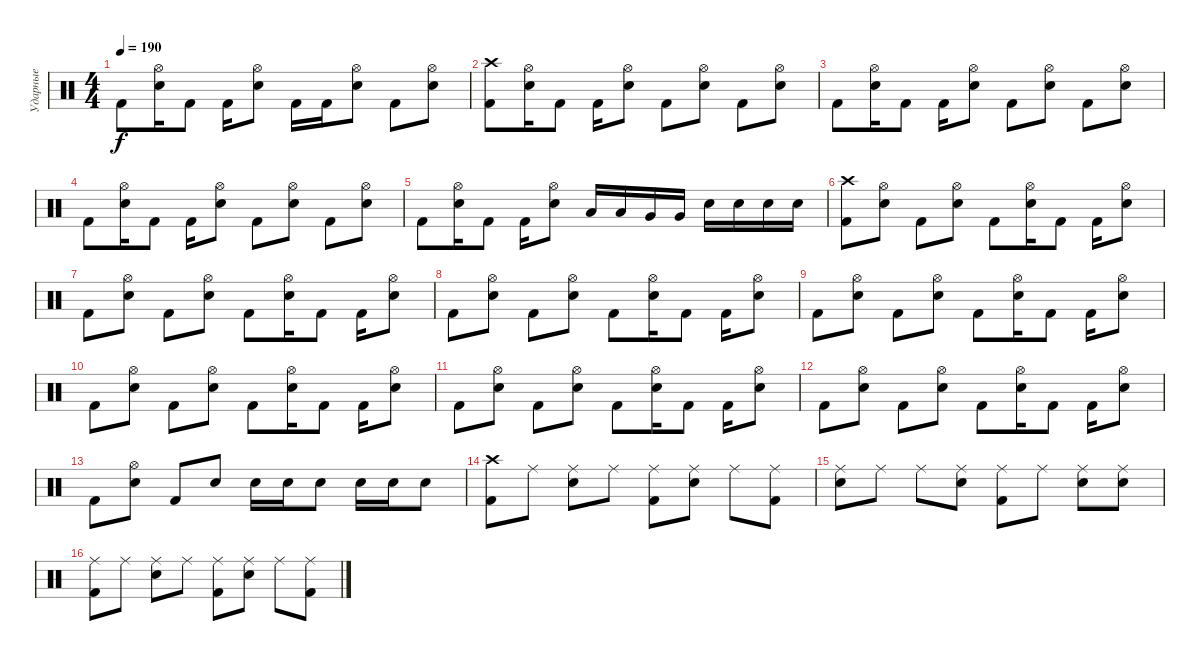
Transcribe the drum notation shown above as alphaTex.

\track ("Ударные" "Ударные") {instrument percussion}
\staff {score}
\articulation defaults
\ts (4 4)
\tempo 190
\clef neutral
\ks c "Kick (hit) 2".8{dy f}
("Hi-Hat (open)" "Electric Snare (hit)").16 "Kick (hit) 2".8 "Kick (hit) 2".16 ("Hi-Hat (open)" "Electric Snare (hit)").8 "Kick (hit) 2".16 "Kick (hit) 2".16 ("Hi-Hat (open)" "Electric Snare (hit)").8 "Kick (hit) 2".8 ("Hi-Hat (open)" "Electric Snare (hit)").8 |
("Crash high (hit)" "Kick (hit) 2").8 ("Hi-Hat (open)" "Electric Snare (hit)").16 "Kick (hit) 2".8 "Kick (hit) 2".16 ("Hi-Hat (open)" "Electric Snare (hit)").8 "Kick (hit) 2".8 ("Hi-Hat (open)" "Electric Snare (hit)").8 "Kick (hit) 2".8 ("Hi-Hat (open)" "Electric Snare (hit)").8 |
"Kick (hit) 2".8 ("Hi-Hat (open)" "Electric Snare (hit)").16 "Kick (hit) 2".8 "Kick (hit) 2".16 ("Hi-Hat (open)" "Electric Snare (hit)").8 "Kick (hit) 2".8 ("Hi-Hat (open)" "Electric Snare (hit)").8 "Kick (hit) 2".8 ("Hi-Hat (open)" "Electric Snare (hit)").8 |
"Kick (hit) 2".8 ("Hi-Hat (open)" "Electric Snare (hit)").16 "Kick (hit) 2".8 "Kick (hit) 2".16 ("Hi-Hat (open)" "Electric Snare (hit)").8 "Kick (hit) 2".8 ("Hi-Hat (open)" "Electric Snare (hit)").8 "Kick (hit) 2".8 ("Hi-Hat (open)" "Electric Snare (hit)").8 |
"Kick (hit) 2".8 ("Hi-Hat (open)" "Electric Snare (hit)").16 "Kick (hit) 2".8 "Kick (hit) 2".16 ("Hi-Hat (open)" "Electric Snare (hit)").8 "Low Tom (hit)".16 "Low Tom (hit)".16 "Very Low Tom (hit)".16 "Very Low Tom (hit)".16 "Electric Snare (hit)".16 "Electric Snare (hit)".16 "Electric Snare (hit)".16 "Electric Snare (hit)".16 |
("Crash high (hit)" "Kick (hit) 2").8 ("Hi-Hat (open)" "Electric Snare (hit)").8 "Kick (hit) 2".8 ("Hi-Hat (open)" "Electric Snare (hit)").8 "Kick (hit) 2".8 ("Hi-Hat (open)" "Electric Snare (hit)").16 "Kick (hit) 2".8 "Kick (hit) 2".16 ("Hi-Hat (open)" "Electric Snare (hit)").8 |
"Kick (hit) 2".8 ("Hi-Hat (open)" "Electric Snare (hit)").8 "Kick (hit) 2".8 ("Hi-Hat (open)" "Electric Snare (hit)").8 "Kick (hit) 2".8 ("Hi-Hat (open)" "Electric Snare (hit)").16 "Kick (hit) 2".8 "Kick (hit) 2".16 ("Hi-Hat (open)" "Electric Snare (hit)").8 |
"Kick (hit) 2".8 ("Hi-Hat (open)" "Electric Snare (hit)").8 "Kick (hit) 2".8 ("Hi-Hat (open)" "Electric Snare (hit)").8 "Kick (hit) 2".8 ("Hi-Hat (open)" "Electric Snare (hit)").16 "Kick (hit) 2".8 "Kick (hit) 2".16 ("Hi-Hat (open)" "Electric Snare (hit)").8 |
"Kick (hit) 2".8 ("Hi-Hat (open)" "Electric Snare (hit)").8 "Kick (hit) 2".8 ("Hi-Hat (open)" "Electric Snare (hit)").8 "Kick (hit) 2".8 ("Hi-Hat (open)" "Electric Snare (hit)").16 "Kick (hit) 2".8 "Kick (hit) 2".16 ("Hi-Hat (open)" "Electric Snare (hit)").8 |
"Kick (hit) 2".8 ("Hi-Hat (open)" "Electric Snare (hit)").8 "Kick (hit) 2".8 ("Hi-Hat (open)" "Electric Snare (hit)").8 "Kick (hit) 2".8 ("Hi-Hat (open)" "Electric Snare (hit)").16 "Kick (hit) 2".8 "Kick (hit) 2".16 ("Hi-Hat (open)" "Electric Snare (hit)").8 |
"Kick (hit) 2".8 ("Hi-Hat (open)" "Electric Snare (hit)").8 "Kick (hit) 2".8 ("Hi-Hat (open)" "Electric Snare (hit)").8 "Kick (hit) 2".8 ("Hi-Hat (open)" "Electric Snare (hit)").16 "Kick (hit) 2".8 "Kick (hit) 2".16 ("Hi-Hat (open)" "Electric Snare (hit)").8 |
"Kick (hit) 2".8 ("Hi-Hat (open)" "Electric Snare (hit)").8 "Kick (hit) 2".8 ("Hi-Hat (open)" "Electric Snare (hit)").8 "Kick (hit) 2".8 ("Hi-Hat (open)" "Electric Snare (hit)").16 "Kick (hit) 2".8 "Kick (hit) 2".16 ("Hi-Hat (open)" "Electric Snare (hit)").8 |
"Kick (hit) 2".8 ("Hi-Hat (open)" "Electric Snare (hit)").8 "Kick (hit) 2".8 "Electric Snare (hit)".8 "Electric Snare (hit)".16 "Electric Snare (hit)".16 "Electric Snare (hit)".8 "Electric Snare (hit)".16 "Electric Snare (hit)".16 "Electric Snare (hit)".8 |
("Crash high (hit)" "Kick (hit) 2").8 "Ride (middle)".8 ("Ride (middle)" "Electric Snare (hit)").8 "Ride (middle)".8 ("Ride (middle)" "Kick (hit) 2").8 ("Ride (middle)" "Electric Snare (hit)").8 "Ride (middle)".8 ("Ride (middle)" "Kick (hit) 2").8 |
("Ride (middle)" "Electric Snare (hit)").8 "Ride (middle)".8 "Ride (middle)".8 ("Ride (middle)" "Electric Snare (hit)").8 ("Ride (middle)" "Kick (hit) 2").8 "Ride (middle)".8 ("Ride (middle)" "Electric Snare (hit)").8 ("Ride (middle)" "Electric Snare (hit)").8 |
("Ride (middle)" "Kick (hit) 2").8 "Ride (middle)".8 ("Ride (middle)" "Electric Snare (hit)").8 "Ride (middle)".8 ("Ride (middle)" "Kick (hit) 2").8 ("Ride (middle)" "Electric Snare (hit)").8 "Ride (middle)".8 ("Ride (middle)" "Kick (hit) 2").8
